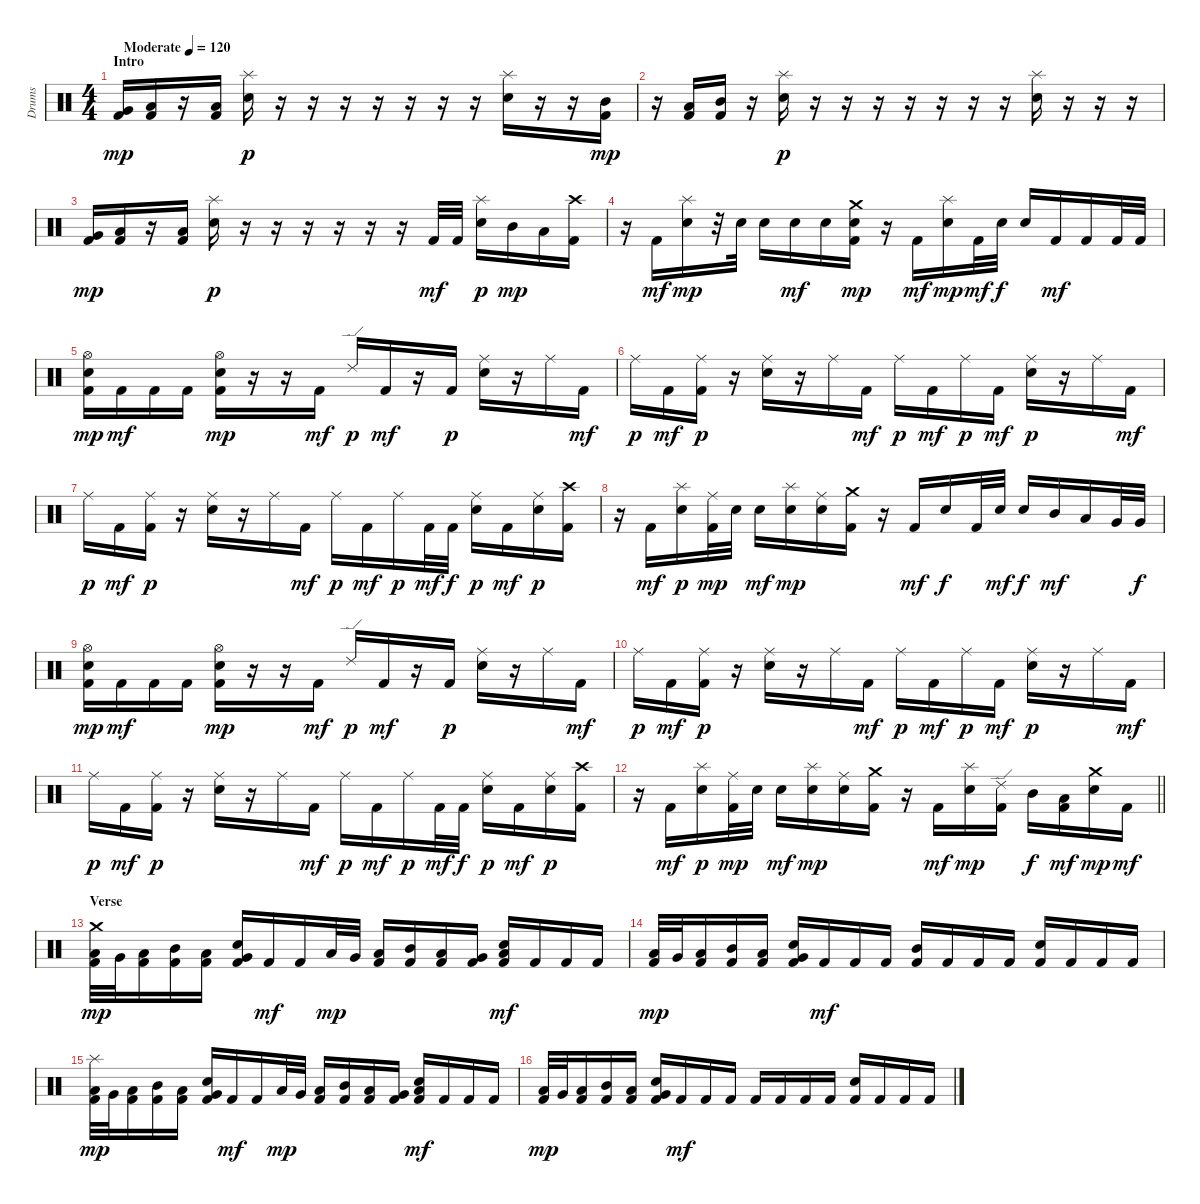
\track ("Drums" "Drums") {instrument percussion}
\staff {score}
\articulation defaults
\ts (4 4)
\section ("" "Intro")
\tempo (120 "Moderate")
\tempo 100
\tempo (120 "Moderate")
\clef neutral
\ks c
("Kick (hit) 2" "Very Low Tom (hit)").16{dy mp} ("Kick (hit) 2" "Low Tom (hit)").16 r.16 ("Kick (hit) 2" "Low Tom (hit)").16 ("Splash (hit)" "Snare (hit) 2").16{dy p} r.16 r.16 r.16 r.16 r.16 r.16 r.16 ("Splash (hit)" "Snare (hit) 2").16 r.16 r.16 ("Kick (hit) 2" "Mid Tom (hit)").16{dy mp} |
r.16 ("Kick (hit) 2" "Low Tom (hit)").16 ("Kick (hit) 2" "Mid Tom (hit)").16 r.16 ("Splash (hit)" "Snare (hit) 2").16{dy p} r.16 r.16 r.16 r.16 r.16 r.16 r.16 ("Splash (hit)" "Snare (hit) 2").16 r.16 r.16 r.16 |
("Kick (hit) 2" "Very Low Tom (hit)").16{dy mp} ("Kick (hit) 2" "Low Tom (hit)").16 r.16 ("Kick (hit) 2" "Low Tom (hit)").16 ("Splash (hit)" "Snare (hit) 2").16{dy p} r.16 r.16 r.16 r.16 r.16 r.16 "Kick (hit) 2".32{dy mf} "Kick (hit) 2".32 ("Splash (hit)" "Snare (hit) 2").16{dy p} "Mid Tom (hit)".16{dy mp} "Low Tom (hit)".16 ("Kick (hit) 2" "Crash high (hit)").16 |
r.16 "Kick (hit) 2".16{dy mf} ("Splash (hit)" "Snare (hit) 2").16{dy mp} r.32 "Snare (hit) 2".32 "Snare (hit) 2".16 "Snare (hit) 2".16{dy mf} "Snare (hit) 2".16 ("Kick (hit) 2" "Crash medium (hit)" "Snare (hit) 2").16{dy mp} r.16 "Kick (hit) 2".16{dy mf} ("Splash (hit)" "Snare (hit) 2").16{dy mp} "Kick (hit) 2".32{dy mf} "Snare (hit) 2".32{dy f} "Snare (hit) 2".16 "Kick (hit) 2".16{dy mf} "Kick (hit) 2".16 "Kick (hit) 2".32 "Kick (hit) 2".32 |
("Kick (hit) 2" "Hi-Hat (open)" "Snare (hit) 2").16{dy mp} "Kick (hit) 2".16{dy mf} "Kick (hit) 2".16 "Kick (hit) 2".16 ("Kick (hit) 2" "Hi-Hat (open)" "Snare (hit) 2").16{dy mp} r.16 r.16 "Kick (hit) 2".16{dy mf} "Ride (edge) 2".16{dy p} "Kick (hit) 2".16{dy mf} r.16 "Kick (hit) 2".16{dy p} ("Ride (middle)" "Snare (hit) 2").16 r.16 "Ride (middle)".16 "Kick (hit) 2".16{dy mf} |
"Ride (middle)".16{dy p} "Kick (hit) 2".16{dy mf} ("Kick (hit) 2" "Ride (middle)").16{dy p} r.16 ("Ride (middle)" "Snare (hit) 2").16 r.16 "Ride (middle)".16 "Kick (hit) 2".16{dy mf} "Ride (middle)".16{dy p} "Kick (hit) 2".16{dy mf} "Ride (middle)".16{dy p} "Kick (hit) 2".16{dy mf} ("Ride (middle)" "Snare (hit) 2").16{dy p} r.16 "Ride (middle)".16 "Kick (hit) 2".16{dy mf} |
"Ride (middle)".16{dy p} "Kick (hit) 2".16{dy mf} ("Kick (hit) 2" "Ride (middle)").16{dy p} r.16 ("Ride (middle)" "Snare (hit) 2").16 r.16 "Ride (middle)".16 "Kick (hit) 2".16{dy mf} "Ride (middle)".16{dy p} "Kick (hit) 2".16{dy mf} "Ride (middle)".16{dy p} "Kick (hit) 2".32{dy mf} "Kick (hit) 2".32{dy f} ("Ride (middle)" "Snare (hit) 2").16{dy p} "Kick (hit) 2".16{dy mf} ("Ride (middle)" "Snare (hit) 2").16{dy p} ("Kick (hit) 2" "Crash high (hit)").16 |
r.16 "Kick (hit) 2".16{dy mf} ("Splash (hit)" "Snare (hit) 2").16{dy p} ("Kick (hit) 2" "Ride (middle)").32{dy mp} "Snare (hit) 2".32 "Snare (hit) 2".16{dy mf} ("Splash (hit)" "Snare (hit) 2").16{dy mp} ("Ride (middle)" "Snare (hit) 2").16 ("Kick (hit) 2" "Crash medium (hit)").16 r.16 "Kick (hit) 2".16{dy mf} "Snare (hit) 2".16{dy f} "Kick (hit) 2".32 "Snare (hit) 2".32{dy mf} "Snare (hit) 2".16{dy f} "Mid Tom (hit)".16{dy mf} "Low Tom (hit)".16 "Very Low Tom (hit)".32 "Very Low Tom (hit)".32{dy f} |
("Kick (hit) 2" "Hi-Hat (open)" "Snare (hit) 2").16{dy mp} "Kick (hit) 2".16{dy mf} "Kick (hit) 2".16 "Kick (hit) 2".16 ("Kick (hit) 2" "Hi-Hat (open)" "Snare (hit) 2").16{dy mp} r.16 r.16 "Kick (hit) 2".16{dy mf} "Ride (edge) 2".16{dy p} "Kick (hit) 2".16{dy mf} r.16 "Kick (hit) 2".16{dy p} ("Ride (middle)" "Snare (hit) 2").16 r.16 "Ride (middle)".16 "Kick (hit) 2".16{dy mf} |
"Ride (middle)".16{dy p} "Kick (hit) 2".16{dy mf} ("Kick (hit) 2" "Ride (middle)").16{dy p} r.16 ("Ride (middle)" "Snare (hit) 2").16 r.16 "Ride (middle)".16 "Kick (hit) 2".16{dy mf} "Ride (middle)".16{dy p} "Kick (hit) 2".16{dy mf} "Ride (middle)".16{dy p} "Kick (hit) 2".16{dy mf} ("Ride (middle)" "Snare (hit) 2").16{dy p} r.16 "Ride (middle)".16 "Kick (hit) 2".16{dy mf} |
"Ride (middle)".16{dy p} "Kick (hit) 2".16{dy mf} ("Kick (hit) 2" "Ride (middle)").16{dy p} r.16 ("Ride (middle)" "Snare (hit) 2").16 r.16 "Ride (middle)".16 "Kick (hit) 2".16{dy mf} "Ride (middle)".16{dy p} "Kick (hit) 2".16{dy mf} "Ride (middle)".16{dy p} "Kick (hit) 2".32{dy mf} "Kick (hit) 2".32{dy f} ("Ride (middle)" "Snare (hit) 2").16{dy p} "Kick (hit) 2".16{dy mf} ("Ride (middle)" "Snare (hit) 2").16{dy p} ("Kick (hit) 2" "Crash high (hit)").16 |
\barLineRight lightlight
r.16 "Kick (hit) 2".16{dy mf} ("Splash (hit)" "Snare (hit) 2").16{dy p} ("Kick (hit) 2" "Ride (middle)").32{dy mp} "Snare (hit) 2".32 "Snare (hit) 2".16{dy mf} ("Splash (hit)" "Snare (hit) 2").16{dy mp} ("Ride (middle)" "Snare (hit) 2").16 ("Kick (hit) 2" "Crash medium (hit)").16 r.16 "Kick (hit) 2".16{dy mf} ("Splash (hit)" "Snare (hit) 2").16{dy mp} ("Kick (hit) 2" "Ride (edge) 2").16 "Mid Tom (hit)".16{dy f} ("Kick (hit) 2" "Low Tom (hit)").16{dy mf} ("Crash medium (hit)" "Snare (hit) 2").16{dy mp} "Kick (hit) 2".16{dy mf} |
\section ("" "Verse")
("Kick (hit) 2" "Crash medium (hit)" "Low Tom (hit)").32{dy mp} "Very Low Tom (hit)".32 ("Kick (hit) 2" "Low Tom (hit)").16 ("Kick (hit) 2" "Mid Tom (hit)").16 ("Kick (hit) 2" "Low Tom (hit)").16 ("Kick (hit) 2" "Snare (hit) 2" "Very Low Tom (hit)").16 "Kick (hit) 2".16{dy mf} "Kick (hit) 2".16 "Low Tom (hit)".32{dy mp} "Very Low Tom (hit)".32 ("Kick (hit) 2" "Low Tom (hit)").16 ("Kick (hit) 2" "Mid Tom (hit)").16 ("Kick (hit) 2" "Low Tom (hit)").16 ("Kick (hit) 2" "Very Low Tom (hit)").16 ("Kick (hit) 2" "Snare (hit) 2" "Low Floor Tom (hit)").16{dy mf} "Kick (hit) 2".16 "Kick (hit) 2".16 "Kick (hit) 2".16 |
("Kick (hit) 2" "Low Tom (hit)").32{dy mp} "Very Low Tom (hit)".32 ("Kick (hit) 2" "Low Tom (hit)").16 ("Kick (hit) 2" "Mid Tom (hit)").16 ("Kick (hit) 2" "Low Tom (hit)").16 ("Kick (hit) 2" "Snare (hit) 2" "Very Low Tom (hit)").16 "Kick (hit) 2".16{dy mf} "Kick (hit) 2".16 "Kick (hit) 2".16 ("Kick (hit) 2" "Mid Tom (hit)").16 "Kick (hit) 2".16 "Kick (hit) 2".16 "Kick (hit) 2".16 ("Kick (hit) 2" "Snare (hit) 2").16 "Kick (hit) 2".16 "Kick (hit) 2".16 "Kick (hit) 2".16 |
("Kick (hit) 2" "Splash (hit)" "Low Tom (hit)").32{dy mp} "Very Low Tom (hit)".32 ("Kick (hit) 2" "Low Tom (hit)").16 ("Kick (hit) 2" "Mid Tom (hit)").16 ("Kick (hit) 2" "Low Tom (hit)").16 ("Kick (hit) 2" "Snare (hit) 2" "Very Low Tom (hit)").16 "Kick (hit) 2".16{dy mf} "Kick (hit) 2".16 "Low Tom (hit)".32{dy mp} "Very Low Tom (hit)".32 ("Kick (hit) 2" "Low Tom (hit)").16 ("Kick (hit) 2" "Mid Tom (hit)").16 ("Kick (hit) 2" "Low Tom (hit)").16 ("Kick (hit) 2" "Very Low Tom (hit)").16 ("Kick (hit) 2" "Snare (hit) 2" "Low Floor Tom (hit)").16{dy mf} "Kick (hit) 2".16 "Kick (hit) 2".16 "Kick (hit) 2".16 |
("Kick (hit) 2" "Low Tom (hit)").32{dy mp} "Very Low Tom (hit)".32 ("Kick (hit) 2" "Low Tom (hit)").16 ("Kick (hit) 2" "Mid Tom (hit)").16 ("Kick (hit) 2" "Low Tom (hit)").16 ("Kick (hit) 2" "Snare (hit) 2" "Very Low Tom (hit)").16 "Kick (hit) 2".16{dy mf} "Kick (hit) 2".16 "Kick (hit) 2".16 "Kick (hit) 2".16 "Kick (hit) 2".16 "Kick (hit) 2".16 "Kick (hit) 2".16 ("Kick (hit) 2" "Snare (hit) 2").16 "Kick (hit) 2".16 "Kick (hit) 2".16 "Kick (hit) 2".16
